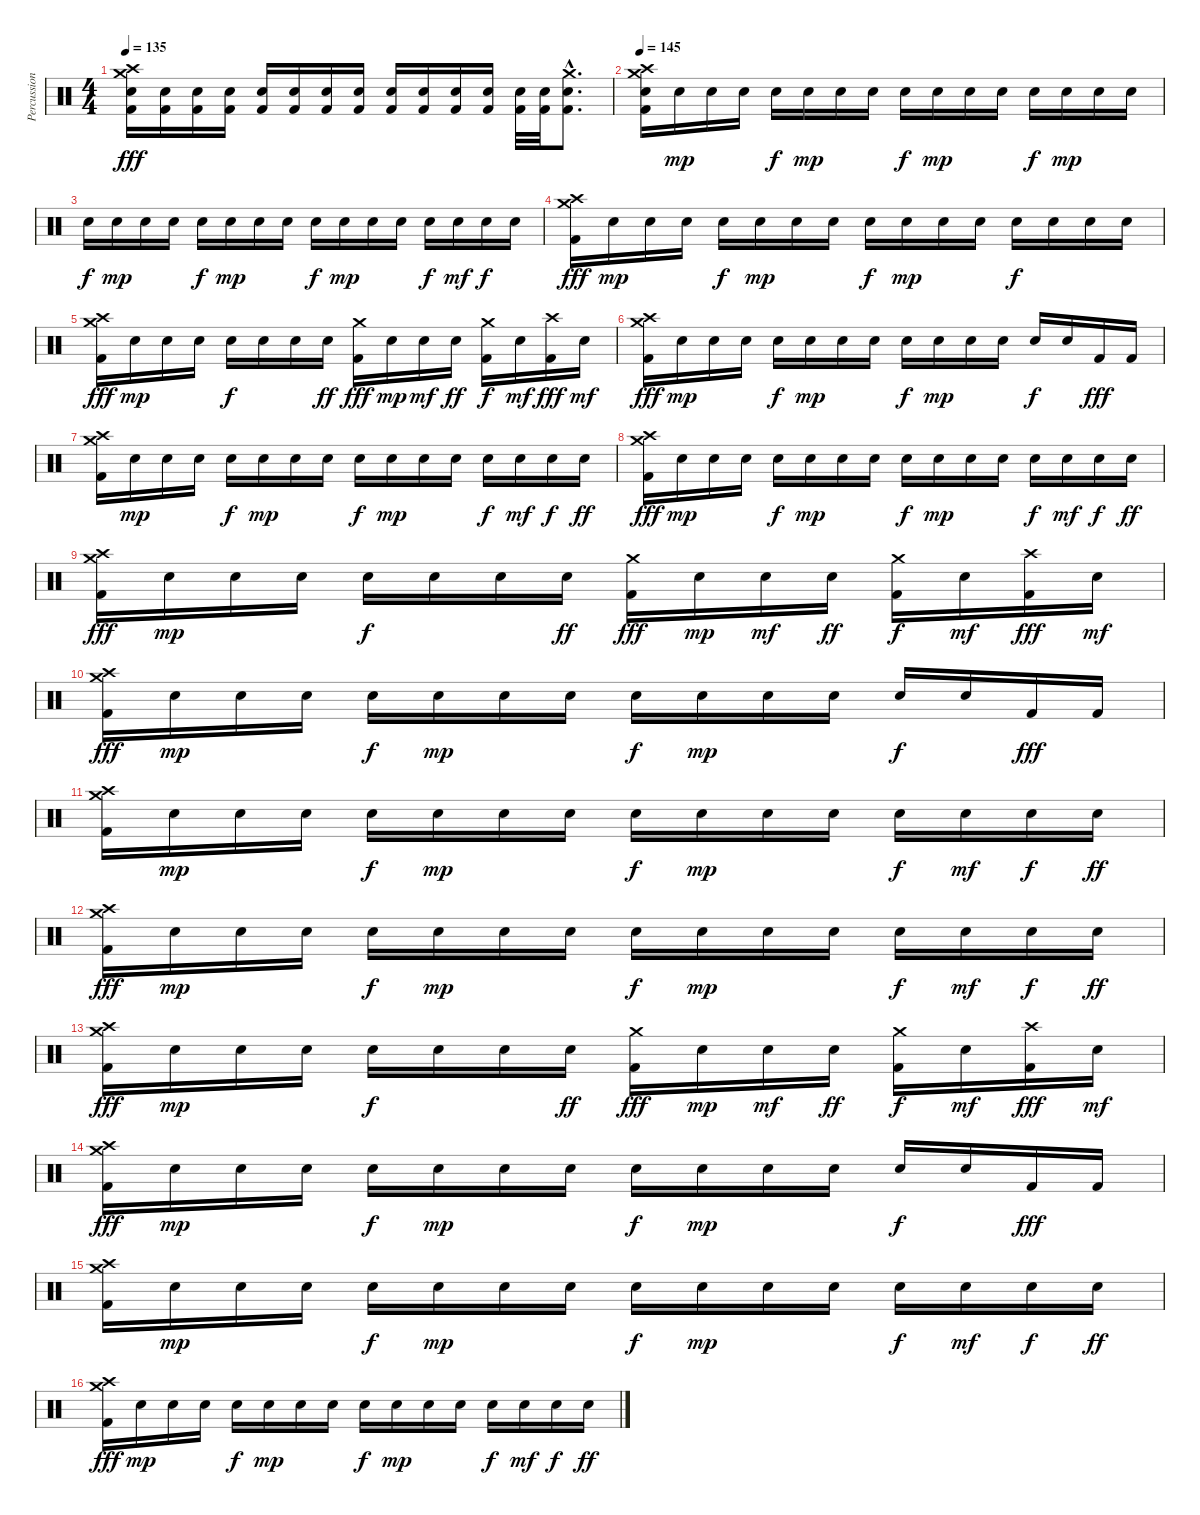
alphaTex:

\track ("Percussions" "Percussion") {instrument percussion}
\staff {score}
\articulation defaults
\ts (4 4)
\tempo 135
\clef neutral
\ks c
("Crash high (hit)" "Crash medium (hit)" "Electric Snare (hit)" "Kick (hit) 2").16{dy fff} ("Electric Snare (hit)" "Kick (hit) 2").16 ("Electric Snare (hit)" "Kick (hit) 2").16 ("Electric Snare (hit)" "Kick (hit) 2").16 ("Electric Snare (hit)" "Kick (hit) 2").16 ("Electric Snare (hit)" "Kick (hit) 2").16 ("Electric Snare (hit)" "Kick (hit) 2").16 ("Electric Snare (hit)" "Kick (hit) 2").16 ("Electric Snare (hit)" "Kick (hit) 2").16 ("Electric Snare (hit)" "Kick (hit) 2").16 ("Electric Snare (hit)" "Kick (hit) 2").16 ("Electric Snare (hit)" "Kick (hit) 2").16 ("Electric Snare (hit)" "Kick (hit) 2").32 ("Electric Snare (hit)" "Kick (hit) 2").32 ("Crash medium (hit)"{hac} "Electric Snare (hit)"{hac} "Kick (hit) 2"{hac}).8{d} |
\tempo 145
("Crash medium (hit)" "Crash high (hit)" "Electric Snare (hit)" "Kick (hit) 2").16 "Electric Snare (hit)".16{dy mp} "Electric Snare (hit)".16 "Electric Snare (hit)".16 "Electric Snare (hit)".16{dy f} "Electric Snare (hit)".16{dy mp} "Electric Snare (hit)".16 "Electric Snare (hit)".16 "Electric Snare (hit)".16{dy f} "Electric Snare (hit)".16{dy mp} "Electric Snare (hit)".16 "Electric Snare (hit)".16 "Electric Snare (hit)".16{dy f} "Electric Snare (hit)".16{dy mp} "Electric Snare (hit)".16 "Electric Snare (hit)".16 |
"Electric Snare (hit)".16{dy f} "Electric Snare (hit)".16{dy mp} "Electric Snare (hit)".16 "Electric Snare (hit)".16 "Electric Snare (hit)".16{dy f} "Electric Snare (hit)".16{dy mp} "Electric Snare (hit)".16 "Electric Snare (hit)".16 "Electric Snare (hit)".16{dy f} "Electric Snare (hit)".16{dy mp} "Electric Snare (hit)".16 "Electric Snare (hit)".16 "Electric Snare (hit)".16{dy f} "Electric Snare (hit)".16{dy mf} "Electric Snare (hit)".16{dy f} "Electric Snare (hit)".16 |
("Crash medium (hit)" "Crash high (hit)" "Kick (hit) 2").16{dy fff} "Electric Snare (hit)".16{dy mp} "Electric Snare (hit)".16 "Electric Snare (hit)".16 "Electric Snare (hit)".16{dy f} "Electric Snare (hit)".16{dy mp} "Electric Snare (hit)".16 "Electric Snare (hit)".16 "Electric Snare (hit)".16{dy f} "Electric Snare (hit)".16{dy mp} "Electric Snare (hit)".16 "Electric Snare (hit)".16 "Electric Snare (hit)".16{dy f} "Electric Snare (hit)".16 "Electric Snare (hit)".16 "Electric Snare (hit)".16 |
("Crash medium (hit)" "Crash high (hit)" "Kick (hit) 2").16{dy fff} "Electric Snare (hit)".16{dy mp} "Electric Snare (hit)".16 "Electric Snare (hit)".16 "Electric Snare (hit)".16{dy f} "Electric Snare (hit)".16 "Electric Snare (hit)".16 "Electric Snare (hit)".16{dy ff} ("Crash medium (hit)" "Kick (hit) 2").16{dy fff} "Electric Snare (hit)".16{dy mp} "Electric Snare (hit)".16{dy mf} "Electric Snare (hit)".16{dy ff} ("Crash medium (hit)" "Kick (hit) 2").16{dy f} "Electric Snare (hit)".16{dy mf} ("Crash high (hit)" "Kick (hit) 2").16{dy fff} "Electric Snare (hit)".16{dy mf} |
("Crash medium (hit)" "Crash high (hit)" "Kick (hit) 2").16{dy fff} "Electric Snare (hit)".16{dy mp} "Electric Snare (hit)".16 "Electric Snare (hit)".16 "Electric Snare (hit)".16{dy f} "Electric Snare (hit)".16{dy mp} "Electric Snare (hit)".16 "Electric Snare (hit)".16 "Electric Snare (hit)".16{dy f} "Electric Snare (hit)".16{dy mp} "Electric Snare (hit)".16 "Electric Snare (hit)".16 "Electric Snare (hit)".16{dy f} "Electric Snare (hit)".16 "Kick (hit) 2".16{dy fff} "Kick (hit) 2".16 |
("Crash medium (hit)" "Crash high (hit)" "Kick (hit) 2").16 "Electric Snare (hit)".16{dy mp} "Electric Snare (hit)".16 "Electric Snare (hit)".16 "Electric Snare (hit)".16{dy f} "Electric Snare (hit)".16{dy mp} "Electric Snare (hit)".16 "Electric Snare (hit)".16 "Electric Snare (hit)".16{dy f} "Electric Snare (hit)".16{dy mp} "Electric Snare (hit)".16 "Electric Snare (hit)".16 "Electric Snare (hit)".16{dy f} "Electric Snare (hit)".16{dy mf} "Electric Snare (hit)".16{dy f} "Electric Snare (hit)".16{dy ff} |
("Crash medium (hit)" "Crash high (hit)" "Kick (hit) 2").16{dy fff} "Electric Snare (hit)".16{dy mp} "Electric Snare (hit)".16 "Electric Snare (hit)".16 "Electric Snare (hit)".16{dy f} "Electric Snare (hit)".16{dy mp} "Electric Snare (hit)".16 "Electric Snare (hit)".16 "Electric Snare (hit)".16{dy f} "Electric Snare (hit)".16{dy mp} "Electric Snare (hit)".16 "Electric Snare (hit)".16 "Electric Snare (hit)".16{dy f} "Electric Snare (hit)".16{dy mf} "Electric Snare (hit)".16{dy f} "Electric Snare (hit)".16{dy ff} |
("Crash medium (hit)" "Crash high (hit)" "Kick (hit) 2").16{dy fff} "Electric Snare (hit)".16{dy mp} "Electric Snare (hit)".16 "Electric Snare (hit)".16 "Electric Snare (hit)".16{dy f} "Electric Snare (hit)".16 "Electric Snare (hit)".16 "Electric Snare (hit)".16{dy ff} ("Crash medium (hit)" "Kick (hit) 2").16{dy fff} "Electric Snare (hit)".16{dy mp} "Electric Snare (hit)".16{dy mf} "Electric Snare (hit)".16{dy ff} ("Crash medium (hit)" "Kick (hit) 2").16{dy f} "Electric Snare (hit)".16{dy mf} ("Crash high (hit)" "Kick (hit) 2").16{dy fff} "Electric Snare (hit)".16{dy mf} |
("Crash medium (hit)" "Crash high (hit)" "Kick (hit) 2").16{dy fff} "Electric Snare (hit)".16{dy mp} "Electric Snare (hit)".16 "Electric Snare (hit)".16 "Electric Snare (hit)".16{dy f} "Electric Snare (hit)".16{dy mp} "Electric Snare (hit)".16 "Electric Snare (hit)".16 "Electric Snare (hit)".16{dy f} "Electric Snare (hit)".16{dy mp} "Electric Snare (hit)".16 "Electric Snare (hit)".16 "Electric Snare (hit)".16{dy f} "Electric Snare (hit)".16 "Kick (hit) 2".16{dy fff} "Kick (hit) 2".16 |
("Crash medium (hit)" "Crash high (hit)" "Kick (hit) 2").16 "Electric Snare (hit)".16{dy mp} "Electric Snare (hit)".16 "Electric Snare (hit)".16 "Electric Snare (hit)".16{dy f} "Electric Snare (hit)".16{dy mp} "Electric Snare (hit)".16 "Electric Snare (hit)".16 "Electric Snare (hit)".16{dy f} "Electric Snare (hit)".16{dy mp} "Electric Snare (hit)".16 "Electric Snare (hit)".16 "Electric Snare (hit)".16{dy f} "Electric Snare (hit)".16{dy mf} "Electric Snare (hit)".16{dy f} "Electric Snare (hit)".16{dy ff} |
("Crash medium (hit)" "Crash high (hit)" "Kick (hit) 2").16{dy fff} "Electric Snare (hit)".16{dy mp} "Electric Snare (hit)".16 "Electric Snare (hit)".16 "Electric Snare (hit)".16{dy f} "Electric Snare (hit)".16{dy mp} "Electric Snare (hit)".16 "Electric Snare (hit)".16 "Electric Snare (hit)".16{dy f} "Electric Snare (hit)".16{dy mp} "Electric Snare (hit)".16 "Electric Snare (hit)".16 "Electric Snare (hit)".16{dy f} "Electric Snare (hit)".16{dy mf} "Electric Snare (hit)".16{dy f} "Electric Snare (hit)".16{dy ff} |
("Crash medium (hit)" "Crash high (hit)" "Kick (hit) 2").16{dy fff} "Electric Snare (hit)".16{dy mp} "Electric Snare (hit)".16 "Electric Snare (hit)".16 "Electric Snare (hit)".16{dy f} "Electric Snare (hit)".16 "Electric Snare (hit)".16 "Electric Snare (hit)".16{dy ff} ("Crash medium (hit)" "Kick (hit) 2").16{dy fff} "Electric Snare (hit)".16{dy mp} "Electric Snare (hit)".16{dy mf} "Electric Snare (hit)".16{dy ff} ("Crash medium (hit)" "Kick (hit) 2").16{dy f} "Electric Snare (hit)".16{dy mf} ("Crash high (hit)" "Kick (hit) 2").16{dy fff} "Electric Snare (hit)".16{dy mf} |
("Crash medium (hit)" "Crash high (hit)" "Kick (hit) 2").16{dy fff} "Electric Snare (hit)".16{dy mp} "Electric Snare (hit)".16 "Electric Snare (hit)".16 "Electric Snare (hit)".16{dy f} "Electric Snare (hit)".16{dy mp} "Electric Snare (hit)".16 "Electric Snare (hit)".16 "Electric Snare (hit)".16{dy f} "Electric Snare (hit)".16{dy mp} "Electric Snare (hit)".16 "Electric Snare (hit)".16 "Electric Snare (hit)".16{dy f} "Electric Snare (hit)".16 "Kick (hit) 2".16{dy fff} "Kick (hit) 2".16 |
("Crash medium (hit)" "Crash high (hit)" "Kick (hit) 2").16 "Electric Snare (hit)".16{dy mp} "Electric Snare (hit)".16 "Electric Snare (hit)".16 "Electric Snare (hit)".16{dy f} "Electric Snare (hit)".16{dy mp} "Electric Snare (hit)".16 "Electric Snare (hit)".16 "Electric Snare (hit)".16{dy f} "Electric Snare (hit)".16{dy mp} "Electric Snare (hit)".16 "Electric Snare (hit)".16 "Electric Snare (hit)".16{dy f} "Electric Snare (hit)".16{dy mf} "Electric Snare (hit)".16{dy f} "Electric Snare (hit)".16{dy ff} |
("Crash medium (hit)" "Crash high (hit)" "Kick (hit) 2").16{dy fff} "Electric Snare (hit)".16{dy mp} "Electric Snare (hit)".16 "Electric Snare (hit)".16 "Electric Snare (hit)".16{dy f} "Electric Snare (hit)".16{dy mp} "Electric Snare (hit)".16 "Electric Snare (hit)".16 "Electric Snare (hit)".16{dy f} "Electric Snare (hit)".16{dy mp} "Electric Snare (hit)".16 "Electric Snare (hit)".16 "Electric Snare (hit)".16{dy f} "Electric Snare (hit)".16{dy mf} "Electric Snare (hit)".16{dy f} "Electric Snare (hit)".16{dy ff}
